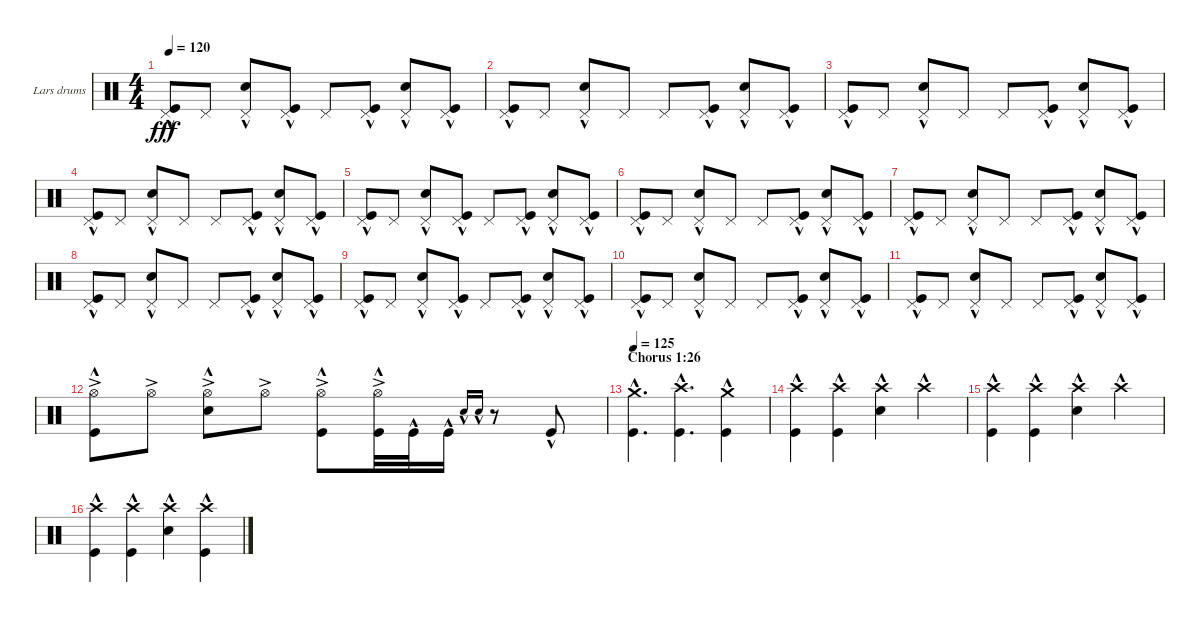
\defaultSystemsLayout 4
\bracketExtendMode groupsimilarinstruments
\firstSystemTrackNameOrientation horizontal
\otherSystemsTrackNameOrientation horizontal
\track ("Lars drums" "Lars drums") {instrument percussion}
\staff {score}
\articulation defaults
\ts (4 4)
\tempo 120
\clef neutral
\ks c
("Kick (hit)"{hac} "Pedal Hi-Hat (hit)").8{dy fff} "Pedal Hi-Hat (hit)".8 ("Pedal Hi-Hat (hit)" "Snare (hit) 2"{hac}).8 ("Pedal Hi-Hat (hit)" "Kick (hit)"{hac}).8 "Pedal Hi-Hat (hit)".8 ("Pedal Hi-Hat (hit)" "Kick (hit)"{hac}).8 ("Pedal Hi-Hat (hit)" "Snare (hit) 2"{hac}).8 ("Pedal Hi-Hat (hit)" "Kick (hit)"{hac}).8 |
("Kick (hit)"{hac} "Pedal Hi-Hat (hit)").8 "Pedal Hi-Hat (hit)".8 ("Pedal Hi-Hat (hit)" "Snare (hit) 2"{hac}).8 "Pedal Hi-Hat (hit)".8 "Pedal Hi-Hat (hit)".8 ("Pedal Hi-Hat (hit)" "Kick (hit)"{hac}).8 ("Pedal Hi-Hat (hit)" "Snare (hit) 2"{hac}).8 ("Kick (hit)"{hac} "Pedal Hi-Hat (hit)").8 |
("Kick (hit)"{hac} "Pedal Hi-Hat (hit)").8 "Pedal Hi-Hat (hit)".8 ("Pedal Hi-Hat (hit)" "Snare (hit) 2"{hac}).8 "Pedal Hi-Hat (hit)".8 "Pedal Hi-Hat (hit)".8 ("Pedal Hi-Hat (hit)" "Kick (hit)"{hac}).8 ("Pedal Hi-Hat (hit)" "Snare (hit) 2"{hac}).8 ("Pedal Hi-Hat (hit)" "Kick (hit)"{hac}).8 |
("Kick (hit)"{hac} "Pedal Hi-Hat (hit)").8 "Pedal Hi-Hat (hit)".8 ("Pedal Hi-Hat (hit)" "Snare (hit) 2"{hac}).8 "Pedal Hi-Hat (hit)".8 "Pedal Hi-Hat (hit)".8 ("Pedal Hi-Hat (hit)" "Kick (hit)"{hac}).8 ("Pedal Hi-Hat (hit)" "Snare (hit) 2"{hac}).8 ("Pedal Hi-Hat (hit)" "Kick (hit)"{hac}).8 |
("Kick (hit)"{hac} "Pedal Hi-Hat (hit)").8 "Pedal Hi-Hat (hit)".8 ("Pedal Hi-Hat (hit)" "Snare (hit) 2"{hac}).8 ("Pedal Hi-Hat (hit)" "Kick (hit)"{hac}).8 "Pedal Hi-Hat (hit)".8 ("Pedal Hi-Hat (hit)" "Kick (hit)"{hac}).8 ("Pedal Hi-Hat (hit)" "Snare (hit) 2"{hac}).8 ("Pedal Hi-Hat (hit)" "Kick (hit)"{hac}).8 |
("Kick (hit)"{hac} "Pedal Hi-Hat (hit)").8 "Pedal Hi-Hat (hit)".8 ("Pedal Hi-Hat (hit)" "Snare (hit) 2"{hac}).8 "Pedal Hi-Hat (hit)".8 "Pedal Hi-Hat (hit)".8 ("Pedal Hi-Hat (hit)" "Kick (hit)"{hac}).8 ("Pedal Hi-Hat (hit)" "Snare (hit) 2"{hac}).8 ("Pedal Hi-Hat (hit)" "Kick (hit)"{hac}).8 |
("Kick (hit)"{hac} "Pedal Hi-Hat (hit)").8 "Pedal Hi-Hat (hit)".8 ("Pedal Hi-Hat (hit)" "Snare (hit) 2"{hac}).8 "Pedal Hi-Hat (hit)".8 "Pedal Hi-Hat (hit)".8 ("Pedal Hi-Hat (hit)" "Kick (hit)"{hac}).8 ("Pedal Hi-Hat (hit)" "Snare (hit) 2"{hac}).8 ("Pedal Hi-Hat (hit)" "Kick (hit)"{hac}).8 |
("Kick (hit)"{hac} "Pedal Hi-Hat (hit)").8 "Pedal Hi-Hat (hit)".8 ("Pedal Hi-Hat (hit)" "Snare (hit) 2"{hac}).8 "Pedal Hi-Hat (hit)".8 "Pedal Hi-Hat (hit)".8 ("Pedal Hi-Hat (hit)" "Kick (hit)"{hac}).8 ("Pedal Hi-Hat (hit)" "Snare (hit) 2"{hac}).8 ("Kick (hit)"{hac} "Pedal Hi-Hat (hit)").8 |
("Kick (hit)"{hac} "Pedal Hi-Hat (hit)").8 "Pedal Hi-Hat (hit)".8 ("Pedal Hi-Hat (hit)" "Snare (hit) 2"{hac}).8 ("Pedal Hi-Hat (hit)" "Kick (hit)"{hac}).8 "Pedal Hi-Hat (hit)".8 ("Pedal Hi-Hat (hit)" "Kick (hit)"{hac}).8 ("Pedal Hi-Hat (hit)" "Snare (hit) 2"{hac}).8 ("Pedal Hi-Hat (hit)" "Kick (hit)"{hac}).8 |
("Kick (hit)"{hac} "Pedal Hi-Hat (hit)").8 "Pedal Hi-Hat (hit)".8 ("Pedal Hi-Hat (hit)" "Snare (hit) 2"{hac}).8 "Pedal Hi-Hat (hit)".8 "Pedal Hi-Hat (hit)".8 ("Pedal Hi-Hat (hit)" "Kick (hit)"{hac}).8 ("Pedal Hi-Hat (hit)" "Snare (hit) 2"{hac}).8 ("Pedal Hi-Hat (hit)" "Kick (hit)"{hac}).8 |
("Kick (hit)"{hac} "Pedal Hi-Hat (hit)").8 "Pedal Hi-Hat (hit)".8 ("Pedal Hi-Hat (hit)" "Snare (hit) 2"{hac}).8 "Pedal Hi-Hat (hit)".8 "Pedal Hi-Hat (hit)".8 ("Pedal Hi-Hat (hit)" "Kick (hit)"{hac}).8 ("Pedal Hi-Hat (hit)" "Snare (hit) 2"{hac}).8 ("Pedal Hi-Hat (hit)" "Kick (hit)"{hac}).8 |
("Hi-Hat (open)"{ac} "Kick (hit)"{hac}).8 "Hi-Hat (open)"{ac}.8 ("Hi-Hat (open)"{ac} "Snare (hit) 2"{hac}).8 "Hi-Hat (open)"{ac}.8 ("Hi-Hat (open)"{ac} "Kick (hit)"{hac}).8 ("Hi-Hat (open)"{ac} "Kick (hit)"{hac}).32 "Kick (hit)"{hac}.32 "Kick (hit)"{hac}.16 "Snare (hit) 2"{hac}.16{gr onbeat} "Snare (hit) 2"{hac}.16{gr onbeat} r.8 "Kick (hit)"{hac}.8 |
\section ("" "Chorus 1:26")
\tempo 125
("Crash medium (hit)"{hac} "Kick (hit)"{hac}).4{d} ("Crash high (hit)"{hac} "Kick (hit)"{hac}).4{d} ("Crash medium (hit)"{hac} "Kick (hit)"{hac}).4 |
("Crash high (hit)"{hac} "Kick (hit)"{hac}).4 ("Crash high (hit)"{hac} "Kick (hit)"{hac}).4 ("Crash high (hit)"{hac} "Snare (hit) 2"{hac}).4 "Crash high (hit)"{hac}.4 |
("Crash high (hit)"{hac} "Kick (hit)"{hac}).4 ("Crash high (hit)"{hac} "Kick (hit)"{hac}).4 ("Crash high (hit)"{hac} "Snare (hit) 2"{hac}).4 "Crash high (hit)"{hac}.4 |
("Crash high (hit)"{hac} "Kick (hit)"{hac}).4 ("Crash high (hit)"{hac} "Kick (hit)"{hac}).4 ("Crash high (hit)"{hac} "Snare (hit) 2"{hac}).4 ("Crash high (hit)"{hac} "Kick (hit)"{hac}).4
